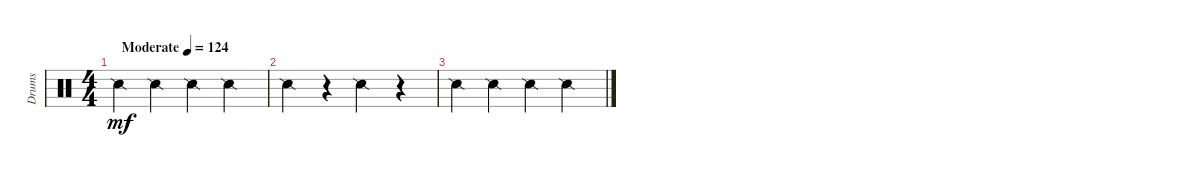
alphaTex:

\track ("Drums" "Drums") {instrument percussion}
\staff {score}
\articulation defaults
\ts (4 4)
\tempo (124 "Moderate")
\clef neutral
\ks c "Snare (side stick) 2".4{dy mf} "Snare (side stick) 2".4 "Snare (side stick) 2".4 "Snare (side stick) 2".4
|
"Snare (side stick) 2".4 r.4 "Snare (side stick) 2".4 r.4 |
"Snare (side stick) 2".4 "Snare (side stick) 2".4 "Snare (side stick) 2".4 "Snare (side stick) 2".4
